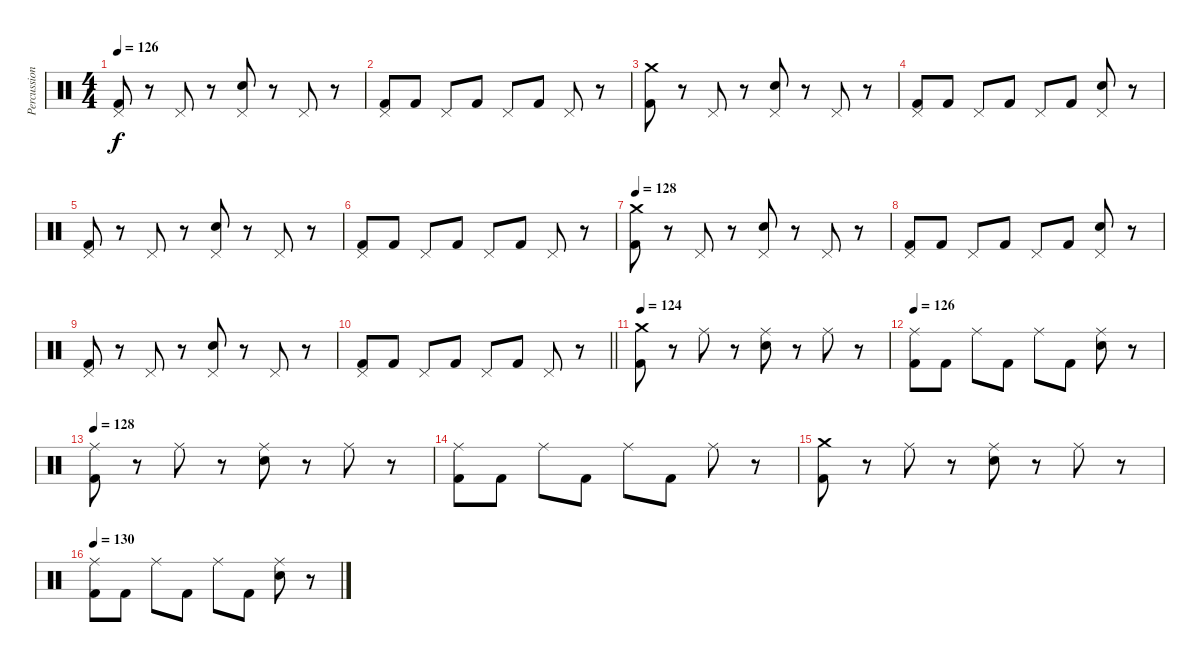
\track ("Percussion" "Percussion") {instrument percussion}
\staff {score}
\articulation defaults
\ts (4 4)
\tempo 126
\clef neutral
\ks c
("Pedal Hi-Hat (hit)" "Kick (hit) 2").8{dy f} r.8 "Pedal Hi-Hat (hit)".8 r.8 ("Pedal Hi-Hat (hit)" "Electric Snare (hit)").8 r.8 "Pedal Hi-Hat (hit)".8 r.8 |
("Pedal Hi-Hat (hit)" "Kick (hit) 2").8 "Kick (hit) 2".8 "Pedal Hi-Hat (hit)".8 "Kick (hit) 2".8 "Pedal Hi-Hat (hit)".8 "Kick (hit) 2".8 "Pedal Hi-Hat (hit)".8 r.8 |
("Crash medium (hit)" "Kick (hit) 2").8 r.8 "Pedal Hi-Hat (hit)".8 r.8 ("Pedal Hi-Hat (hit)" "Electric Snare (hit)").8 r.8 "Pedal Hi-Hat (hit)".8 r.8 |
("Pedal Hi-Hat (hit)" "Kick (hit) 2").8 "Kick (hit) 2".8 "Pedal Hi-Hat (hit)".8 "Kick (hit) 2".8 "Pedal Hi-Hat (hit)".8 "Kick (hit) 2".8 ("Pedal Hi-Hat (hit)" "Electric Snare (hit)").8 r.8 |
("Pedal Hi-Hat (hit)" "Kick (hit) 2").8 r.8 "Pedal Hi-Hat (hit)".8 r.8 ("Pedal Hi-Hat (hit)" "Electric Snare (hit)").8 r.8 "Pedal Hi-Hat (hit)".8 r.8 |
("Pedal Hi-Hat (hit)" "Kick (hit) 2").8 "Kick (hit) 2".8 "Pedal Hi-Hat (hit)".8 "Kick (hit) 2".8 "Pedal Hi-Hat (hit)".8 "Kick (hit) 2".8 "Pedal Hi-Hat (hit)".8 r.8 |
\tempo 128
("Crash medium (hit)" "Kick (hit) 2").8 r.8 "Pedal Hi-Hat (hit)".8 r.8 ("Pedal Hi-Hat (hit)" "Electric Snare (hit)").8 r.8 "Pedal Hi-Hat (hit)".8 r.8 |
("Pedal Hi-Hat (hit)" "Kick (hit) 2").8 "Kick (hit) 2".8 "Pedal Hi-Hat (hit)".8 "Kick (hit) 2".8 "Pedal Hi-Hat (hit)".8 "Kick (hit) 2".8 ("Pedal Hi-Hat (hit)" "Electric Snare (hit)").8 r.8 |
("Pedal Hi-Hat (hit)" "Kick (hit) 2").8 r.8 "Pedal Hi-Hat (hit)".8 r.8 ("Pedal Hi-Hat (hit)" "Electric Snare (hit)").8 r.8 "Pedal Hi-Hat (hit)".8 r.8 |
\barLineRight lightlight
("Pedal Hi-Hat (hit)" "Kick (hit) 2").8 "Kick (hit) 2".8 "Pedal Hi-Hat (hit)".8 "Kick (hit) 2".8 "Pedal Hi-Hat (hit)".8 "Kick (hit) 2".8 "Pedal Hi-Hat (hit)".8 r.8 |
\section ("" "")
\tempo 124
("Crash medium (hit)" "Kick (hit) 2").8 r.8 "Ride (middle)".8 r.8 ("Ride (middle)" "Electric Snare (hit)").8 r.8 "Ride (middle)".8 r.8 |
\tempo 126
("Ride (middle)" "Kick (hit) 2").8 "Kick (hit) 2".8 "Ride (middle)".8 "Kick (hit) 2".8 "Ride (middle)".8 "Kick (hit) 2".8 ("Ride (middle)" "Electric Snare (hit)").8 r.8 |
\tempo 128
("Ride (middle)" "Kick (hit) 2").8 r.8 "Ride (middle)".8 r.8 ("Ride (middle)" "Electric Snare (hit)").8 r.8 "Ride (middle)".8 r.8 |
("Ride (middle)" "Kick (hit) 2").8 "Kick (hit) 2".8 "Ride (middle)".8 "Kick (hit) 2".8 "Ride (middle)".8 "Kick (hit) 2".8 "Ride (middle)".8 r.8 |
("Crash medium (hit)" "Kick (hit) 2").8 r.8 "Ride (middle)".8 r.8 ("Ride (middle)" "Electric Snare (hit)").8 r.8 "Ride (middle)".8 r.8 |
\tempo 130
("Ride (middle)" "Kick (hit) 2").8 "Kick (hit) 2".8 "Ride (middle)".8 "Kick (hit) 2".8 "Ride (middle)".8 "Kick (hit) 2".8 ("Ride (middle)" "Electric Snare (hit)").8 r.8
